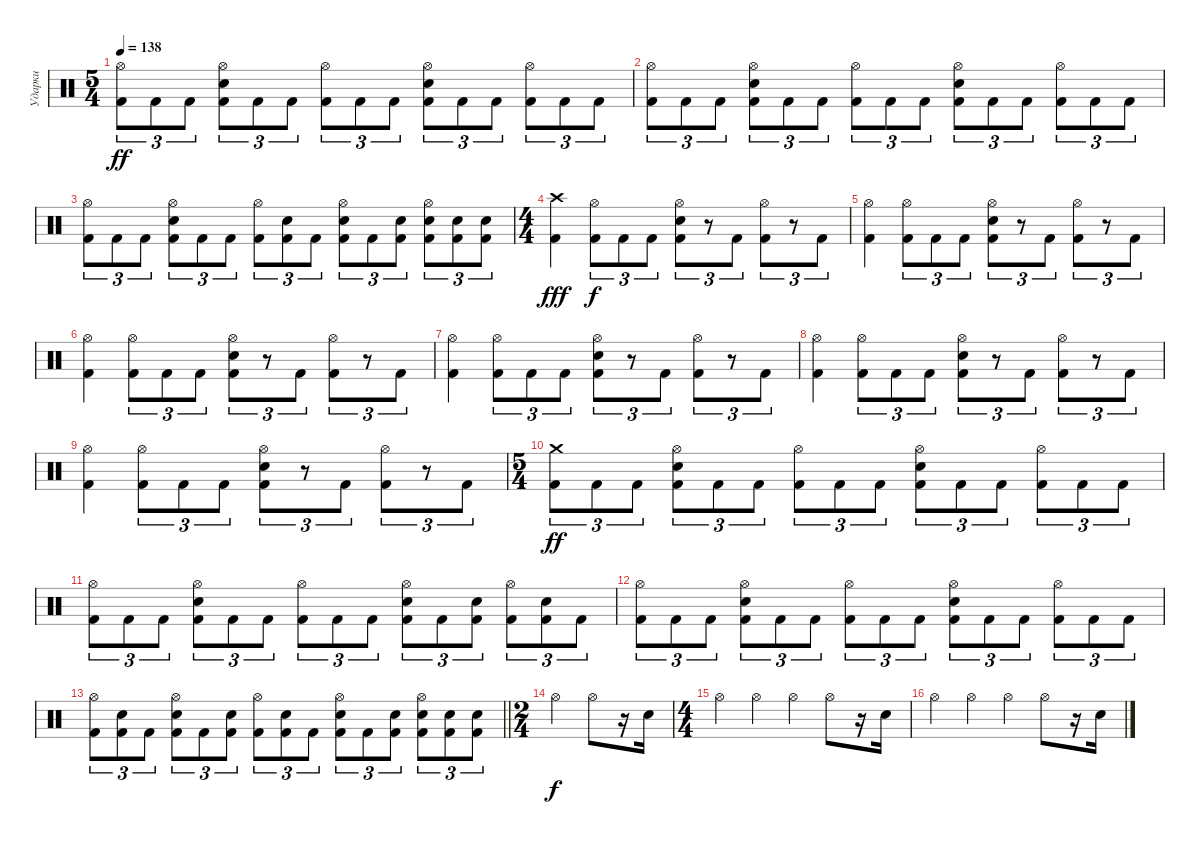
\track ("Ударки" "Ударки") {instrument percussion}
\staff {score}
\articulation defaults
\ts (5 4)
\tempo 138
\clef neutral
\ks c
("Hi-Hat (open)" "Kick (hit) 2").8{tu (3 2) dy ff} "Kick (hit) 2".8{tu (3 2)} "Kick (hit) 2".8{tu (3 2)} ("Hi-Hat (open)" "Snare (hit) 2" "Kick (hit) 2").8{tu (3 2)} "Kick (hit) 2".8{tu (3 2)} "Kick (hit) 2".8{tu (3 2)} ("Hi-Hat (open)" "Kick (hit) 2").8{tu (3 2)} "Kick (hit) 2".8{tu (3 2)} "Kick (hit) 2".8{tu (3 2)} ("Hi-Hat (open)" "Snare (hit) 2" "Kick (hit) 2").8{tu (3 2)} "Kick (hit) 2".8{tu (3 2)} "Kick (hit) 2".8{tu (3 2)} ("Hi-Hat (open)" "Kick (hit) 2").8{tu (3 2)} "Kick (hit) 2".8{tu (3 2)} "Kick (hit) 2".8{tu (3 2)} |
("Hi-Hat (open)" "Kick (hit) 2").8{tu (3 2)} "Kick (hit) 2".8{tu (3 2)} "Kick (hit) 2".8{tu (3 2)} ("Hi-Hat (open)" "Snare (hit) 2" "Kick (hit) 2").8{tu (3 2)} "Kick (hit) 2".8{tu (3 2)} "Kick (hit) 2".8{tu (3 2)} ("Hi-Hat (open)" "Kick (hit) 2").8{tu (3 2)} "Kick (hit) 2".8{tu (3 2)} "Kick (hit) 2".8{tu (3 2)} ("Hi-Hat (open)" "Snare (hit) 2" "Kick (hit) 2").8{tu (3 2)} "Kick (hit) 2".8{tu (3 2)} "Kick (hit) 2".8{tu (3 2)} ("Hi-Hat (open)" "Kick (hit) 2").8{tu (3 2)} "Kick (hit) 2".8{tu (3 2)} "Kick (hit) 2".8{tu (3 2)} |
("Hi-Hat (open)" "Kick (hit) 2").8{tu (3 2)} "Kick (hit) 2".8{tu (3 2)} "Kick (hit) 2".8{tu (3 2)} ("Hi-Hat (open)" "Snare (hit) 2" "Kick (hit) 2").8{tu (3 2)} "Kick (hit) 2".8{tu (3 2)} "Kick (hit) 2".8{tu (3 2)} ("Hi-Hat (open)" "Kick (hit) 2").8{tu (3 2)} ("Snare (hit) 2" "Kick (hit) 2").8{tu (3 2)} "Kick (hit) 2".8{tu (3 2)} ("Hi-Hat (open)" "Snare (hit) 2" "Kick (hit) 2").8{tu (3 2)} "Kick (hit) 2".8{tu (3 2)} ("Snare (hit) 2" "Kick (hit) 2").8{tu (3 2)} ("Hi-Hat (open)" "Snare (hit) 2" "Kick (hit) 2").8{tu (3 2)} ("Snare (hit) 2" "Kick (hit) 2").8{tu (3 2)} ("Snare (hit) 2" "Kick (hit) 2").8{tu (3 2)} |
\ts (4 4)
("Crash high (hit)" "Kick (hit) 2").4{dy fff} ("Hi-Hat (open)" "Kick (hit) 2").8{tu (3 2) dy f} "Kick (hit) 2".8{tu (3 2)} "Kick (hit) 2".8{tu (3 2)} ("Hi-Hat (open)" "Snare (hit) 2" "Kick (hit) 2").8{tu (3 2)} r.8{tu (3 2)} "Kick (hit) 2".8{tu (3 2)} ("Hi-Hat (open)" "Kick (hit) 2").8{tu (3 2)} r.8{tu (3 2)} "Kick (hit) 2".8{tu (3 2)} |
("Hi-Hat (open)" "Kick (hit) 2").4 ("Hi-Hat (open)" "Kick (hit) 2").8{tu (3 2)} "Kick (hit) 2".8{tu (3 2)} "Kick (hit) 2".8{tu (3 2)} ("Hi-Hat (open)" "Snare (hit) 2" "Kick (hit) 2").8{tu (3 2)} r.8{tu (3 2)} "Kick (hit) 2".8{tu (3 2)} ("Hi-Hat (open)" "Kick (hit) 2").8{tu (3 2)} r.8{tu (3 2)} "Kick (hit) 2".8{tu (3 2)} |
("Hi-Hat (open)" "Kick (hit) 2").4 ("Hi-Hat (open)" "Kick (hit) 2").8{tu (3 2)} "Kick (hit) 2".8{tu (3 2)} "Kick (hit) 2".8{tu (3 2)} ("Hi-Hat (open)" "Snare (hit) 2" "Kick (hit) 2").8{tu (3 2)} r.8{tu (3 2)} "Kick (hit) 2".8{tu (3 2)} ("Hi-Hat (open)" "Kick (hit) 2").8{tu (3 2)} r.8{tu (3 2)} "Kick (hit) 2".8{tu (3 2)} |
("Hi-Hat (open)" "Kick (hit) 2").4 ("Hi-Hat (open)" "Kick (hit) 2").8{tu (3 2)} "Kick (hit) 2".8{tu (3 2)} "Kick (hit) 2".8{tu (3 2)} ("Hi-Hat (open)" "Snare (hit) 2" "Kick (hit) 2").8{tu (3 2)} r.8{tu (3 2)} "Kick (hit) 2".8{tu (3 2)} ("Hi-Hat (open)" "Kick (hit) 2").8{tu (3 2)} r.8{tu (3 2)} "Kick (hit) 2".8{tu (3 2)} |
("Hi-Hat (open)" "Kick (hit) 2").4 ("Hi-Hat (open)" "Kick (hit) 2").8{tu (3 2)} "Kick (hit) 2".8{tu (3 2)} "Kick (hit) 2".8{tu (3 2)} ("Hi-Hat (open)" "Snare (hit) 2" "Kick (hit) 2").8{tu (3 2)} r.8{tu (3 2)} "Kick (hit) 2".8{tu (3 2)} ("Hi-Hat (open)" "Kick (hit) 2").8{tu (3 2)} r.8{tu (3 2)} "Kick (hit) 2".8{tu (3 2)} |
("Hi-Hat (open)" "Kick (hit) 2").4 ("Hi-Hat (open)" "Kick (hit) 2").8{tu (3 2)} "Kick (hit) 2".8{tu (3 2)} "Kick (hit) 2".8{tu (3 2)} ("Hi-Hat (open)" "Snare (hit) 2" "Kick (hit) 2").8{tu (3 2)} r.8{tu (3 2)} "Kick (hit) 2".8{tu (3 2)} ("Hi-Hat (open)" "Kick (hit) 2").8{tu (3 2)} r.8{tu (3 2)} "Kick (hit) 2".8{tu (3 2)} |
\ts (5 4)
("Crash medium (hit)" "Kick (hit) 2").8{tu (3 2) dy ff} "Kick (hit) 2".8{tu (3 2)} "Kick (hit) 2".8{tu (3 2)} ("Hi-Hat (open)" "Snare (hit) 2" "Kick (hit) 2").8{tu (3 2)} "Kick (hit) 2".8{tu (3 2)} "Kick (hit) 2".8{tu (3 2)} ("Hi-Hat (open)" "Kick (hit) 2").8{tu (3 2)} "Kick (hit) 2".8{tu (3 2)} "Kick (hit) 2".8{tu (3 2)} ("Hi-Hat (open)" "Snare (hit) 2" "Kick (hit) 2").8{tu (3 2)} "Kick (hit) 2".8{tu (3 2)} "Kick (hit) 2".8{tu (3 2)} ("Hi-Hat (open)" "Kick (hit) 2").8{tu (3 2)} "Kick (hit) 2".8{tu (3 2)} "Kick (hit) 2".8{tu (3 2)} |
("Hi-Hat (open)" "Kick (hit) 2").8{tu (3 2)} "Kick (hit) 2".8{tu (3 2)} "Kick (hit) 2".8{tu (3 2)} ("Hi-Hat (open)" "Snare (hit) 2" "Kick (hit) 2").8{tu (3 2)} "Kick (hit) 2".8{tu (3 2)} "Kick (hit) 2".8{tu (3 2)} ("Hi-Hat (open)" "Kick (hit) 2").8{tu (3 2)} "Kick (hit) 2".8{tu (3 2)} "Kick (hit) 2".8{tu (3 2)} ("Hi-Hat (open)" "Snare (hit) 2" "Kick (hit) 2").8{tu (3 2)} "Kick (hit) 2".8{tu (3 2)} ("Snare (hit) 2" "Kick (hit) 2").8{tu (3 2)} ("Hi-Hat (open)" "Kick (hit) 2").8{tu (3 2)} ("Snare (hit) 2" "Kick (hit) 2").8{tu (3 2)} "Kick (hit) 2".8{tu (3 2)} |
("Hi-Hat (open)" "Kick (hit) 2").8{tu (3 2)} "Kick (hit) 2".8{tu (3 2)} "Kick (hit) 2".8{tu (3 2)} ("Hi-Hat (open)" "Snare (hit) 2" "Kick (hit) 2").8{tu (3 2)} "Kick (hit) 2".8{tu (3 2)} "Kick (hit) 2".8{tu (3 2)} ("Hi-Hat (open)" "Kick (hit) 2").8{tu (3 2)} "Kick (hit) 2".8{tu (3 2)} "Kick (hit) 2".8{tu (3 2)} ("Hi-Hat (open)" "Snare (hit) 2" "Kick (hit) 2").8{tu (3 2)} "Kick (hit) 2".8{tu (3 2)} "Kick (hit) 2".8{tu (3 2)} ("Hi-Hat (open)" "Kick (hit) 2").8{tu (3 2)} "Kick (hit) 2".8{tu (3 2)} "Kick (hit) 2".8{tu (3 2)} |
\barLineRight lightlight
("Hi-Hat (open)" "Kick (hit) 2").8{tu (3 2)} ("Snare (hit) 2" "Kick (hit) 2").8{tu (3 2)} "Kick (hit) 2".8{tu (3 2)} ("Hi-Hat (open)" "Snare (hit) 2" "Kick (hit) 2").8{tu (3 2)} "Kick (hit) 2".8{tu (3 2)} ("Snare (hit) 2" "Kick (hit) 2").8{tu (3 2)} ("Hi-Hat (open)" "Kick (hit) 2").8{tu (3 2)} ("Snare (hit) 2" "Kick (hit) 2").8{tu (3 2)} "Kick (hit) 2".8{tu (3 2)} ("Hi-Hat (open)" "Snare (hit) 2" "Kick (hit) 2").8{tu (3 2)} "Kick (hit) 2".8{tu (3 2)} ("Snare (hit) 2" "Kick (hit) 2").8{tu (3 2)} ("Hi-Hat (open)" "Snare (hit) 2" "Kick (hit) 2").8{tu (3 2)} ("Snare (hit) 2" "Kick (hit) 2").8{tu (3 2)} ("Snare (hit) 2" "Kick (hit) 2").8{tu (3 2)} |
\ts (2 4)
\section ("" "")
"Hi-Hat (open)".4{dy f} "Hi-Hat (open)".8 r.16 "Snare (hit) 2".16 |
\ts (4 4)
"Hi-Hat (open)".4 "Hi-Hat (open)".4 "Hi-Hat (open)".4 "Hi-Hat (open)".8 r.16 "Snare (hit) 2".16 |
"Hi-Hat (open)".4 "Hi-Hat (open)".4 "Hi-Hat (open)".4 "Hi-Hat (open)".8 r.16 "Snare (hit) 2".16
